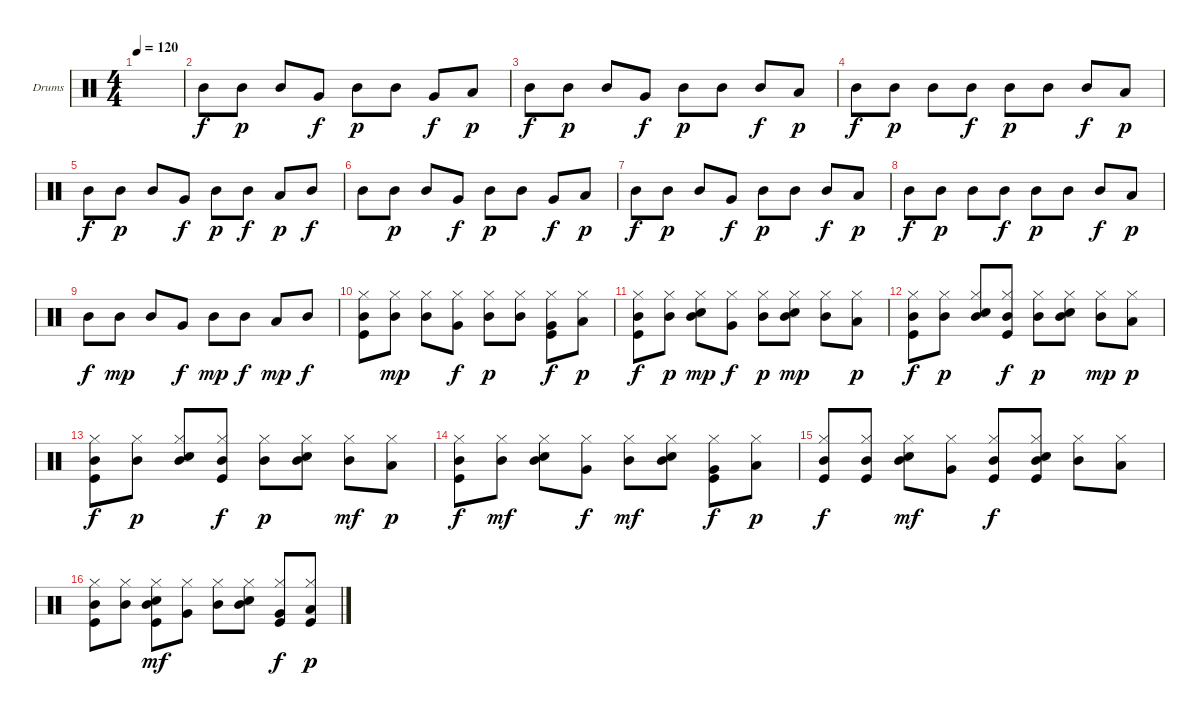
\defaultSystemsLayout 4
\bracketExtendMode groupsimilarinstruments
\firstSystemTrackNameOrientation horizontal
\otherSystemsTrackNameOrientation horizontal
\track ("Drumkit" "Drums") {instrument percussion}
\staff {score}
\articulation defaults
\ts (4 4)
\tempo 120
\clef neutral
\ks c
|
"Mid Tom (hit)".8 "Mid Tom (hit)".8{dy p} "Mid Tom (hit)".8 "Very Low Tom (hit)".8{dy f} "Mid Tom (hit)".8{dy p} "Mid Tom (hit)".8 "Very Low Tom (hit)".8{dy f} "Low Tom (hit)".8{dy p} |
"Mid Tom (hit)".8{dy f} "Mid Tom (hit)".8{dy p} "Mid Tom (hit)".8 "Very Low Tom (hit)".8{dy f} "Mid Tom (hit)".8{dy p} "Mid Tom (hit)".8 "Mid Tom (hit)".8{dy f} "Low Tom (hit)".8{dy p} |
"Mid Tom (hit)".8{dy f} "Mid Tom (hit)".8{dy p} "Mid Tom (hit)".8 "Mid Tom (hit)".8{dy f} "Mid Tom (hit)".8{dy p} "Mid Tom (hit)".8 "Mid Tom (hit)".8{dy f} "Low Tom (hit)".8{dy p} |
"Mid Tom (hit)".8{dy f} "Mid Tom (hit)".8{dy p} "Mid Tom (hit)".8 "Very Low Tom (hit)".8{dy f} "Mid Tom (hit)".8{dy p} "Mid Tom (hit)".8{dy f} "Low Tom (hit)".8{dy p} "Mid Tom (hit)".8{dy f} |
"Mid Tom (hit)".8 "Mid Tom (hit)".8{dy p} "Mid Tom (hit)".8 "Very Low Tom (hit)".8{dy f} "Mid Tom (hit)".8{dy p} "Mid Tom (hit)".8 "Very Low Tom (hit)".8{dy f} "Low Tom (hit)".8{dy p} |
"Mid Tom (hit)".8{dy f} "Mid Tom (hit)".8{dy p} "Mid Tom (hit)".8 "Very Low Tom (hit)".8{dy f} "Mid Tom (hit)".8{dy p} "Mid Tom (hit)".8 "Mid Tom (hit)".8{dy f} "Low Tom (hit)".8{dy p} |
"Mid Tom (hit)".8{dy f} "Mid Tom (hit)".8{dy p} "Mid Tom (hit)".8 "Mid Tom (hit)".8{dy f} "Mid Tom (hit)".8{dy p} "Mid Tom (hit)".8 "Mid Tom (hit)".8{dy f} "Low Tom (hit)".8{dy p} |
"Mid Tom (hit)".8{dy f} "Mid Tom (hit)".8{dy mp} "Mid Tom (hit)".8 "Very Low Tom (hit)".8{dy f} "Mid Tom (hit)".8{dy mp} "Mid Tom (hit)".8{dy f} "Low Tom (hit)".8{dy mp} "Mid Tom (hit)".8{dy f} |
("Mid Tom (hit)" "Hi-Hat (closed)" "Kick (hit)").8 ("Mid Tom (hit)" "Hi-Hat (closed)").8{dy mp} ("Mid Tom (hit)" "Hi-Hat (closed)").8 ("Very Low Tom (hit)" "Hi-Hat (closed)").8{dy f} ("Mid Tom (hit)" "Hi-Hat (closed)").8{dy p} ("Mid Tom (hit)" "Hi-Hat (closed)").8 ("Very Low Tom (hit)" "Hi-Hat (closed)" "Kick (hit)").8{dy f} ("Low Tom (hit)" "Hi-Hat (closed)").8{dy p} |
("Mid Tom (hit)" "Hi-Hat (closed)" "Kick (hit)").8{dy f} ("Mid Tom (hit)" "Hi-Hat (closed)").8{dy p} ("Mid Tom (hit)" "Hi-Hat (closed)" "Snare (hit) 2").8{dy mp} ("Very Low Tom (hit)" "Hi-Hat (closed)").8{dy f} ("Mid Tom (hit)" "Hi-Hat (closed)").8{dy p} ("Mid Tom (hit)" "Hi-Hat (closed)" "Snare (hit) 2").8{dy mp} ("Mid Tom (hit)" "Hi-Hat (closed)").8 ("Low Tom (hit)" "Hi-Hat (closed)").8{dy p} |
("Mid Tom (hit)" "Hi-Hat (closed)" "Kick (hit)").8{dy f} ("Mid Tom (hit)" "Hi-Hat (closed)").8{dy p} ("Mid Tom (hit)" "Hi-Hat (closed)" "Snare (hit) 2").8 ("Mid Tom (hit)" "Hi-Hat (closed)" "Kick (hit)").8{dy f} ("Mid Tom (hit)" "Hi-Hat (closed)").8{dy p} ("Mid Tom (hit)" "Hi-Hat (closed)" "Snare (hit) 2").8 ("Mid Tom (hit)" "Hi-Hat (closed)").8{dy mp} ("Low Tom (hit)" "Hi-Hat (closed)").8{dy p} |
("Mid Tom (hit)" "Hi-Hat (closed)" "Kick (hit)").8{dy f} ("Mid Tom (hit)" "Hi-Hat (closed)").8{dy p} ("Mid Tom (hit)" "Hi-Hat (closed)" "Snare (hit) 2").8 ("Mid Tom (hit)" "Hi-Hat (closed)" "Kick (hit)").8{dy f} ("Mid Tom (hit)" "Hi-Hat (closed)").8{dy p} ("Mid Tom (hit)" "Hi-Hat (closed)" "Snare (hit) 2").8 ("Mid Tom (hit)" "Hi-Hat (closed)").8{dy mf} ("Low Tom (hit)" "Hi-Hat (closed)").8{dy p} |
("Mid Tom (hit)" "Hi-Hat (closed)" "Kick (hit)").8{dy f} ("Mid Tom (hit)" "Hi-Hat (closed)").8{dy mf} ("Mid Tom (hit)" "Hi-Hat (closed)" "Snare (hit) 2").8 ("Very Low Tom (hit)" "Hi-Hat (closed)").8{dy f} ("Mid Tom (hit)" "Hi-Hat (closed)").8{dy mf} ("Mid Tom (hit)" "Hi-Hat (closed)" "Snare (hit) 2").8 ("Very Low Tom (hit)" "Hi-Hat (closed)" "Kick (hit)").8{dy f} ("Low Tom (hit)" "Hi-Hat (closed)").8{dy p} |
("Mid Tom (hit)" "Hi-Hat (closed)" "Kick (hit)").8{dy f} ("Mid Tom (hit)" "Hi-Hat (closed)" "Kick (hit)").8 ("Mid Tom (hit)" "Hi-Hat (closed)" "Snare (hit) 2").8{dy mf} ("Very Low Tom (hit)" "Hi-Hat (closed)").8 ("Mid Tom (hit)" "Hi-Hat (closed)" "Kick (hit)").8{dy f} ("Mid Tom (hit)" "Hi-Hat (closed)" "Snare (hit) 2" "Kick (hit)").8 ("Mid Tom (hit)" "Hi-Hat (closed)").8 ("Low Tom (hit)" "Hi-Hat (closed)").8 |
("Mid Tom (hit)" "Hi-Hat (closed)" "Kick (hit)").8 ("Mid Tom (hit)" "Hi-Hat (closed)").8 ("Mid Tom (hit)" "Hi-Hat (closed)" "Snare (hit) 2" "Kick (hit)").8{dy mf} ("Very Low Tom (hit)" "Hi-Hat (closed)").8 ("Mid Tom (hit)" "Hi-Hat (closed)").8 ("Mid Tom (hit)" "Hi-Hat (closed)" "Snare (hit) 2").8 ("Very Low Tom (hit)" "Hi-Hat (closed)" "Kick (hit)").8{dy f} ("Low Tom (hit)" "Hi-Hat (closed)" "Kick (hit)").8{dy p}
